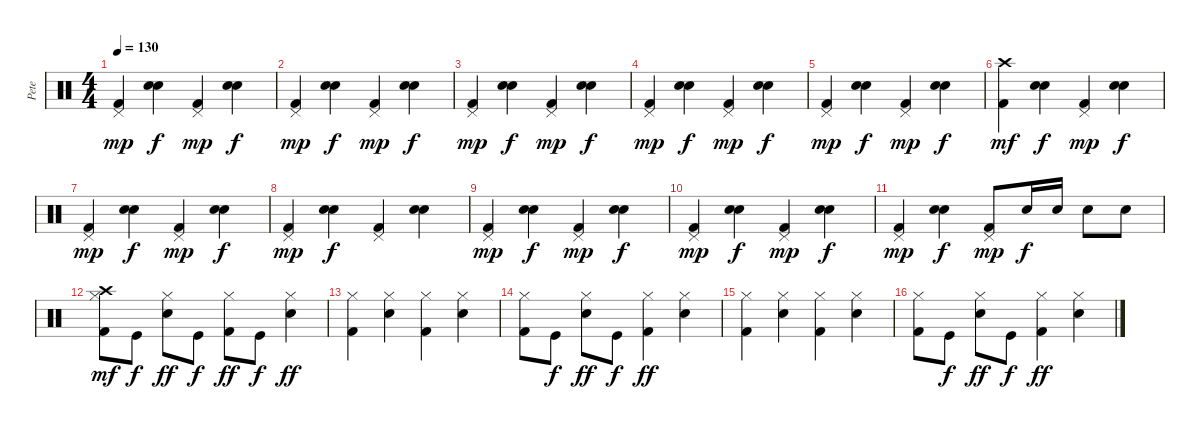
\track ("Pete" "Pete") {instrument percussion}
\staff {score}
\articulation defaults
\ts (4 4)
\tempo 130
\clef neutral
\ks c
("Pedal Hi-Hat (hit)" "Kick (hit) 2").4{dy mp} ("Snare (hit) 2" "Electric Snare (hit)").4{dy f} ("Pedal Hi-Hat (hit)" "Kick (hit) 2").4{dy mp} ("Snare (hit) 2" "Electric Snare (hit)").4{dy f} |
("Pedal Hi-Hat (hit)" "Kick (hit) 2").4{dy mp} ("Snare (hit) 2" "Electric Snare (hit)").4{dy f} ("Pedal Hi-Hat (hit)" "Kick (hit) 2").4{dy mp} ("Snare (hit) 2" "Electric Snare (hit)").4{dy f} |
("Pedal Hi-Hat (hit)" "Kick (hit) 2").4{dy mp} ("Snare (hit) 2" "Electric Snare (hit)").4{dy f} ("Pedal Hi-Hat (hit)" "Kick (hit) 2").4{dy mp} ("Snare (hit) 2" "Electric Snare (hit)").4{dy f} |
("Pedal Hi-Hat (hit)" "Kick (hit) 2").4{dy mp} ("Snare (hit) 2" "Electric Snare (hit)").4{dy f} ("Pedal Hi-Hat (hit)" "Kick (hit) 2").4{dy mp} ("Snare (hit) 2" "Electric Snare (hit)").4{dy f} |
("Pedal Hi-Hat (hit)" "Kick (hit) 2").4{dy mp} ("Snare (hit) 2" "Electric Snare (hit)").4{dy f} ("Pedal Hi-Hat (hit)" "Kick (hit) 2").4{dy mp} ("Snare (hit) 2" "Electric Snare (hit)").4{dy f} |
("Kick (hit) 2" "Crash high (hit)").4{dy mf} ("Snare (hit) 2" "Electric Snare (hit)").4{dy f} ("Pedal Hi-Hat (hit)" "Kick (hit) 2").4{dy mp} ("Snare (hit) 2" "Electric Snare (hit)").4{dy f} |
("Pedal Hi-Hat (hit)" "Kick (hit) 2").4{dy mp} ("Snare (hit) 2" "Electric Snare (hit)").4{dy f} ("Pedal Hi-Hat (hit)" "Kick (hit) 2").4{dy mp} ("Snare (hit) 2" "Electric Snare (hit)").4{dy f} |
("Pedal Hi-Hat (hit)" "Kick (hit) 2").4{dy mp} ("Snare (hit) 2" "Electric Snare (hit)").4{dy f} ("Pedal Hi-Hat (hit)" "Kick (hit) 2").4 ("Snare (hit) 2" "Electric Snare (hit)").4 |
("Pedal Hi-Hat (hit)" "Kick (hit) 2").4{dy mp} ("Snare (hit) 2" "Electric Snare (hit)").4{dy f} ("Pedal Hi-Hat (hit)" "Kick (hit) 2").4{dy mp} ("Snare (hit) 2" "Electric Snare (hit)").4{dy f} |
("Pedal Hi-Hat (hit)" "Kick (hit) 2").4{dy mp} ("Snare (hit) 2" "Electric Snare (hit)").4{dy f} ("Pedal Hi-Hat (hit)" "Kick (hit) 2").4{dy mp} ("Snare (hit) 2" "Electric Snare (hit)").4{dy f} |
("Pedal Hi-Hat (hit)" "Kick (hit) 2").4{dy mp} ("Snare (hit) 2" "Electric Snare (hit)").4{dy f} ("Pedal Hi-Hat (hit)" "Kick (hit) 2").8{dy mp} "Snare (hit) 2".16{dy f} "Snare (hit) 2".16 "Snare (hit) 2".8 "Snare (hit) 2".8 |
("Hi-Hat (closed)" "Crash high (hit)" "Kick (hit) 2").8{dy mf} "Kick (hit)".8{dy f} ("Hi-Hat (closed)" "Snare (hit) 2").8{dy ff} "Kick (hit)".8{dy f} ("Hi-Hat (closed)" "Kick (hit) 2").8{dy ff} "Kick (hit)".8{dy f} ("Hi-Hat (closed)" "Snare (hit) 2").4{dy ff} |
("Hi-Hat (closed)" "Kick (hit) 2").4 ("Hi-Hat (closed)" "Snare (hit) 2").4 ("Hi-Hat (closed)" "Kick (hit) 2").4 ("Hi-Hat (closed)" "Snare (hit) 2").4 |
("Hi-Hat (closed)" "Kick (hit) 2").8 "Kick (hit)".8{dy f} ("Hi-Hat (closed)" "Snare (hit) 2").8{dy ff} "Kick (hit)".8{dy f} ("Hi-Hat (closed)" "Kick (hit) 2").4{dy ff} ("Hi-Hat (closed)" "Snare (hit) 2").4 |
("Hi-Hat (closed)" "Kick (hit) 2").4 ("Hi-Hat (closed)" "Snare (hit) 2").4 ("Hi-Hat (closed)" "Kick (hit) 2").4 ("Hi-Hat (closed)" "Snare (hit) 2").4 |
("Hi-Hat (closed)" "Kick (hit) 2").8 "Kick (hit)".8{dy f} ("Hi-Hat (closed)" "Snare (hit) 2").8{dy ff} "Kick (hit)".8{dy f} ("Hi-Hat (closed)" "Kick (hit) 2").4{dy ff} ("Hi-Hat (closed)" "Snare (hit) 2").4
